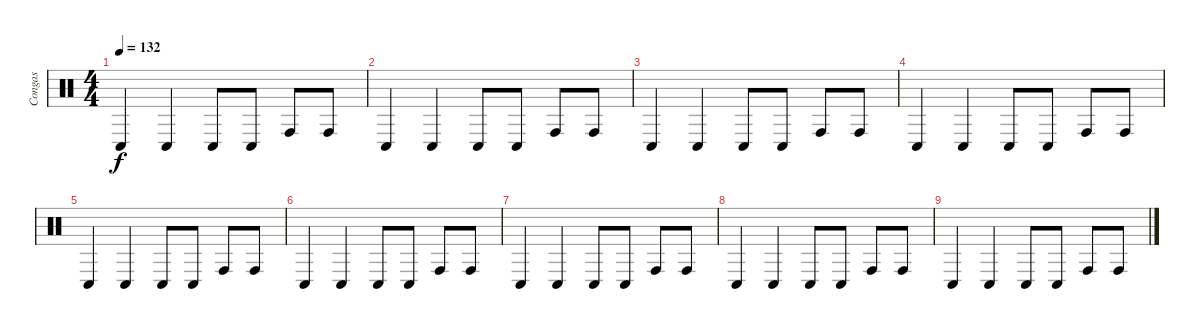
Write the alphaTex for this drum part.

\track ("Congas" "Congas") {instrument percussion}
\staff {score}
\articulation defaults
\ts (4 4)
\tempo 132
\clef neutral
\ks c "Conga low (hit)".4{dy f} "Conga low (hit)".4 "Conga low (hit)".8 "Conga low (hit)".8 "Conga high (hit)".8 "Conga high (hit)".8
|
"Conga low (hit)".4 "Conga low (hit)".4 "Conga low (hit)".8 "Conga low (hit)".8 "Conga high (hit)".8 "Conga high (hit)".8 |
"Conga low (hit)".4 "Conga low (hit)".4 "Conga low (hit)".8 "Conga low (hit)".8 "Conga high (hit)".8 "Conga high (hit)".8 |
"Conga low (hit)".4 "Conga low (hit)".4 "Conga low (hit)".8 "Conga low (hit)".8 "Conga high (hit)".8 "Conga high (hit)".8 |
"Conga low (hit)".4 "Conga low (hit)".4 "Conga low (hit)".8 "Conga low (hit)".8 "Conga high (hit)".8 "Conga high (hit)".8 |
"Conga low (hit)".4 "Conga low (hit)".4 "Conga low (hit)".8 "Conga low (hit)".8 "Conga high (hit)".8 "Conga high (hit)".8 |
"Conga low (hit)".4 "Conga low (hit)".4 "Conga low (hit)".8 "Conga low (hit)".8 "Conga high (hit)".8 "Conga high (hit)".8 |
"Conga low (hit)".4 "Conga low (hit)".4 "Conga low (hit)".8 "Conga low (hit)".8 "Conga high (hit)".8 "Conga high (hit)".8 |
"Conga low (hit)".4 "Conga low (hit)".4 "Conga low (hit)".8 "Conga low (hit)".8 "Conga high (hit)".8 "Conga high (hit)".8
